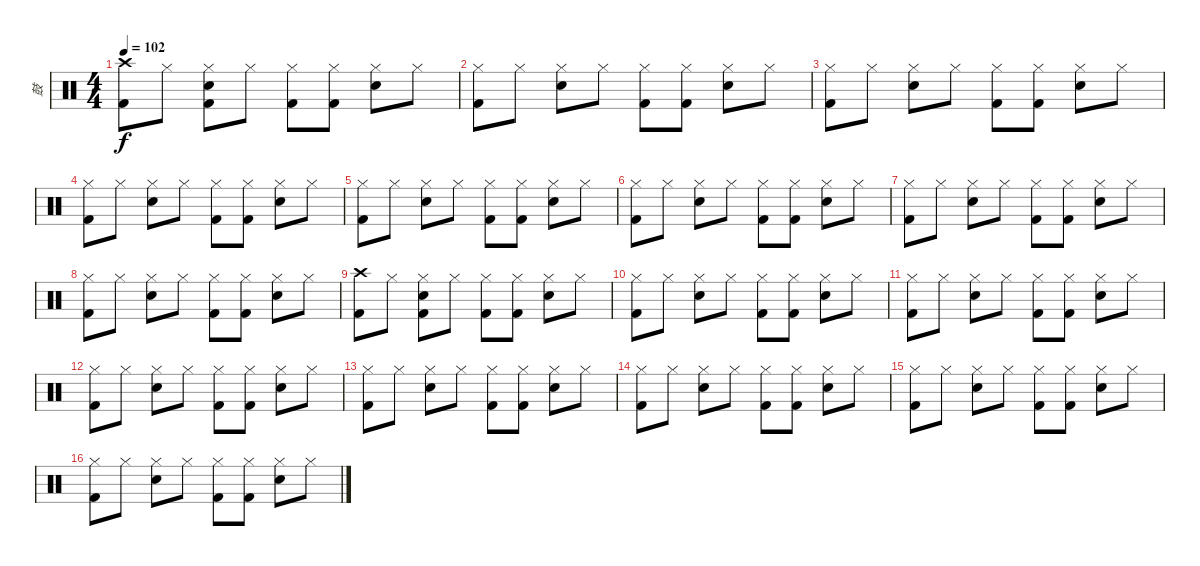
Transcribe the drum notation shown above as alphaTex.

\track ("鼓" "鼓") {instrument percussion}
\staff {score}
\articulation defaults
\ts (4 4)
\tempo 102
\clef neutral
\ks c
("Crash high (hit)" "Kick (hit) 2").8{dy f} "Hi-Hat (closed)".8 ("Hi-Hat (closed)" "Electric Snare (hit)" "Kick (hit) 2").8 "Hi-Hat (closed)".8 ("Hi-Hat (closed)" "Kick (hit) 2").8 ("Hi-Hat (closed)" "Kick (hit) 2").8 ("Hi-Hat (closed)" "Electric Snare (hit)").8 "Hi-Hat (closed)".8 |
("Hi-Hat (closed)" "Kick (hit) 2").8 "Hi-Hat (closed)".8 ("Hi-Hat (closed)" "Electric Snare (hit)").8 "Hi-Hat (closed)".8 ("Hi-Hat (closed)" "Kick (hit) 2").8 ("Hi-Hat (closed)" "Kick (hit) 2").8 ("Hi-Hat (closed)" "Electric Snare (hit)").8 "Hi-Hat (closed)".8 |
("Hi-Hat (closed)" "Kick (hit) 2").8 "Hi-Hat (closed)".8 ("Hi-Hat (closed)" "Electric Snare (hit)").8 "Hi-Hat (closed)".8 ("Hi-Hat (closed)" "Kick (hit) 2").8 ("Hi-Hat (closed)" "Kick (hit) 2").8 ("Hi-Hat (closed)" "Electric Snare (hit)").8 "Hi-Hat (closed)".8 |
("Hi-Hat (closed)" "Kick (hit) 2").8 "Hi-Hat (closed)".8 ("Hi-Hat (closed)" "Electric Snare (hit)").8 "Hi-Hat (closed)".8 ("Hi-Hat (closed)" "Kick (hit) 2").8 ("Hi-Hat (closed)" "Kick (hit) 2").8 ("Hi-Hat (closed)" "Electric Snare (hit)").8 "Hi-Hat (closed)".8 |
("Hi-Hat (closed)" "Kick (hit) 2").8 "Hi-Hat (closed)".8 ("Hi-Hat (closed)" "Electric Snare (hit)").8 "Hi-Hat (closed)".8 ("Hi-Hat (closed)" "Kick (hit) 2").8 ("Hi-Hat (closed)" "Kick (hit) 2").8 ("Hi-Hat (closed)" "Electric Snare (hit)").8 "Hi-Hat (closed)".8 |
("Hi-Hat (closed)" "Kick (hit) 2").8 "Hi-Hat (closed)".8 ("Hi-Hat (closed)" "Electric Snare (hit)").8 "Hi-Hat (closed)".8 ("Hi-Hat (closed)" "Kick (hit) 2").8 ("Hi-Hat (closed)" "Kick (hit) 2").8 ("Hi-Hat (closed)" "Electric Snare (hit)").8 "Hi-Hat (closed)".8 |
("Hi-Hat (closed)" "Kick (hit) 2").8 "Hi-Hat (closed)".8 ("Hi-Hat (closed)" "Electric Snare (hit)").8 "Hi-Hat (closed)".8 ("Hi-Hat (closed)" "Kick (hit) 2").8 ("Hi-Hat (closed)" "Kick (hit) 2").8 ("Hi-Hat (closed)" "Electric Snare (hit)").8 "Hi-Hat (closed)".8 |
("Hi-Hat (closed)" "Kick (hit) 2").8 "Hi-Hat (closed)".8 ("Hi-Hat (closed)" "Electric Snare (hit)").8 "Hi-Hat (closed)".8 ("Hi-Hat (closed)" "Kick (hit) 2").8 ("Hi-Hat (closed)" "Kick (hit) 2").8 ("Hi-Hat (closed)" "Electric Snare (hit)").8 "Hi-Hat (closed)".8 |
("Crash high (hit)" "Kick (hit) 2").8 "Hi-Hat (closed)".8 ("Hi-Hat (closed)" "Electric Snare (hit)" "Kick (hit) 2").8 "Hi-Hat (closed)".8 ("Hi-Hat (closed)" "Kick (hit) 2").8 ("Hi-Hat (closed)" "Kick (hit) 2").8 ("Hi-Hat (closed)" "Electric Snare (hit)").8 "Hi-Hat (closed)".8 |
("Hi-Hat (closed)" "Kick (hit) 2").8 "Hi-Hat (closed)".8 ("Hi-Hat (closed)" "Electric Snare (hit)").8 "Hi-Hat (closed)".8 ("Hi-Hat (closed)" "Kick (hit) 2").8 ("Hi-Hat (closed)" "Kick (hit) 2").8 ("Hi-Hat (closed)" "Electric Snare (hit)").8 "Hi-Hat (closed)".8 |
("Hi-Hat (closed)" "Kick (hit) 2").8 "Hi-Hat (closed)".8 ("Hi-Hat (closed)" "Electric Snare (hit)").8 "Hi-Hat (closed)".8 ("Hi-Hat (closed)" "Kick (hit) 2").8 ("Hi-Hat (closed)" "Kick (hit) 2").8 ("Hi-Hat (closed)" "Electric Snare (hit)").8 "Hi-Hat (closed)".8 |
("Hi-Hat (closed)" "Kick (hit) 2").8 "Hi-Hat (closed)".8 ("Hi-Hat (closed)" "Electric Snare (hit)").8 "Hi-Hat (closed)".8 ("Hi-Hat (closed)" "Kick (hit) 2").8 ("Hi-Hat (closed)" "Kick (hit) 2").8 ("Hi-Hat (closed)" "Electric Snare (hit)").8 "Hi-Hat (closed)".8 |
("Hi-Hat (closed)" "Kick (hit) 2").8 "Hi-Hat (closed)".8 ("Hi-Hat (closed)" "Electric Snare (hit)").8 "Hi-Hat (closed)".8 ("Hi-Hat (closed)" "Kick (hit) 2").8 ("Hi-Hat (closed)" "Kick (hit) 2").8 ("Hi-Hat (closed)" "Electric Snare (hit)").8 "Hi-Hat (closed)".8 |
("Hi-Hat (closed)" "Kick (hit) 2").8 "Hi-Hat (closed)".8 ("Hi-Hat (closed)" "Electric Snare (hit)").8 "Hi-Hat (closed)".8 ("Hi-Hat (closed)" "Kick (hit) 2").8 ("Hi-Hat (closed)" "Kick (hit) 2").8 ("Hi-Hat (closed)" "Electric Snare (hit)").8 "Hi-Hat (closed)".8 |
("Hi-Hat (closed)" "Kick (hit) 2").8 "Hi-Hat (closed)".8 ("Hi-Hat (closed)" "Electric Snare (hit)").8 "Hi-Hat (closed)".8 ("Hi-Hat (closed)" "Kick (hit) 2").8 ("Hi-Hat (closed)" "Kick (hit) 2").8 ("Hi-Hat (closed)" "Electric Snare (hit)").8 "Hi-Hat (closed)".8 |
("Hi-Hat (closed)" "Kick (hit) 2").8 "Hi-Hat (closed)".8 ("Hi-Hat (closed)" "Electric Snare (hit)").8 "Hi-Hat (closed)".8 ("Hi-Hat (closed)" "Kick (hit) 2").8 ("Hi-Hat (closed)" "Kick (hit) 2").8 ("Hi-Hat (closed)" "Electric Snare (hit)").8 "Hi-Hat (closed)".8
